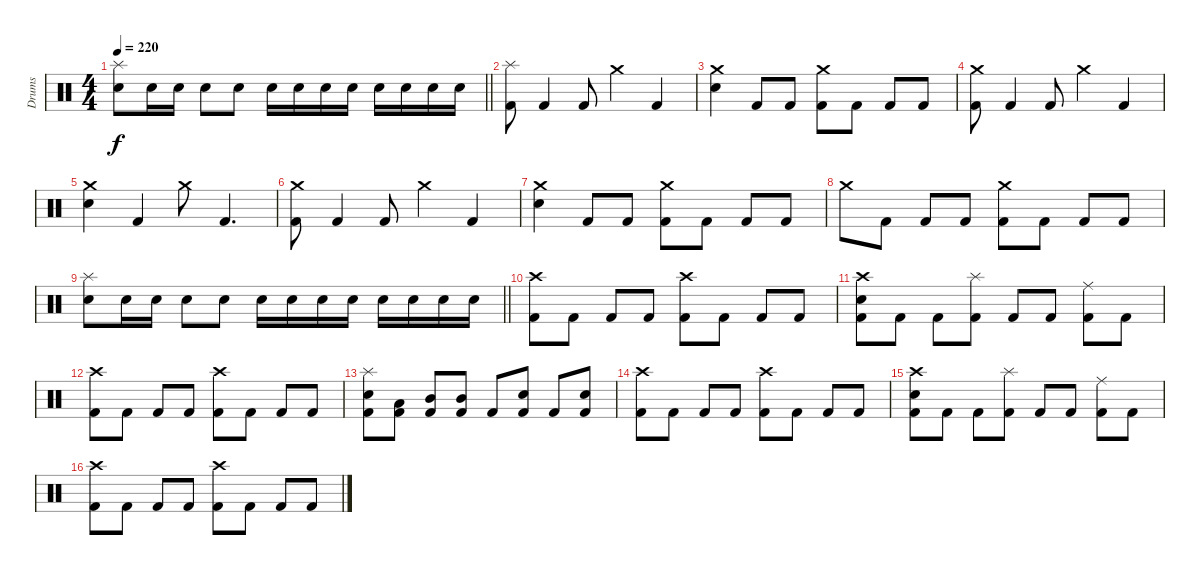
\track ("Drums" "Drums") {instrument percussion}
\staff {score}
\articulation defaults
\ts (4 4)
\tempo 220
\clef neutral
\barLineRight lightlight
\ks c
("Splash (hit)" "Electric Snare (hit)").8{dy f} "Electric Snare (hit)".16 "Electric Snare (hit)".16 "Electric Snare (hit)".8 "Electric Snare (hit)".8 "Electric Snare (hit)".16 "Electric Snare (hit)".16 "Electric Snare (hit)".16 "Electric Snare (hit)".16 "Electric Snare (hit)".16 "Electric Snare (hit)".16 "Electric Snare (hit)".16 "Electric Snare (hit)".16 |
\section ("" "")
("Splash (hit)" "Kick (hit) 2").8 "Kick (hit) 2".4 "Kick (hit) 2".8 "Crash medium (hit)".4 "Kick (hit) 2".4 |
("Crash medium (hit)" "Electric Snare (hit)").4 "Kick (hit) 2".8 "Kick (hit) 2".8 ("Crash medium (hit)" "Kick (hit) 2").8 "Kick (hit) 2".8 "Kick (hit) 2".8 "Kick (hit) 2".8 |
("Crash medium (hit)" "Kick (hit) 2").8 "Kick (hit) 2".4 "Kick (hit) 2".8 "Crash medium (hit)".4 "Kick (hit) 2".4 |
("Crash medium (hit)" "Electric Snare (hit)").4 "Kick (hit) 2".4 "Crash medium (hit)".8 "Kick (hit) 2".4{d} |
("Crash medium (hit)" "Kick (hit) 2").8 "Kick (hit) 2".4 "Kick (hit) 2".8 "Crash medium (hit)".4 "Kick (hit) 2".4 |
("Crash medium (hit)" "Electric Snare (hit)").4 "Kick (hit) 2".8 "Kick (hit) 2".8 ("Crash medium (hit)" "Kick (hit) 2").8 "Kick (hit) 2".8 "Kick (hit) 2".8 "Kick (hit) 2".8 |
"Crash medium (hit)".8 "Kick (hit) 2".8 "Kick (hit) 2".8 "Kick (hit) 2".8 ("Crash medium (hit)" "Kick (hit) 2").8 "Kick (hit) 2".8 "Kick (hit) 2".8 "Kick (hit) 2".8 |
\barLineRight lightlight
("Splash (hit)" "Electric Snare (hit)").8 "Electric Snare (hit)".16 "Electric Snare (hit)".16 "Electric Snare (hit)".8 "Electric Snare (hit)".8 "Electric Snare (hit)".16 "Electric Snare (hit)".16 "Electric Snare (hit)".16 "Electric Snare (hit)".16 "Electric Snare (hit)".16 "Electric Snare (hit)".16 "Electric Snare (hit)".16 "Electric Snare (hit)".16 |
\section ("" "")
("Crash high (hit)" "Kick (hit) 2").8 "Kick (hit) 2".8 "Kick (hit) 2".8 "Kick (hit) 2".8 ("Crash high (hit)" "Kick (hit) 2").8 "Kick (hit) 2".8 "Kick (hit) 2".8 "Kick (hit) 2".8 |
("Crash high (hit)" "Electric Snare (hit)" "Kick (hit) 2").8 "Kick (hit) 2".8 "Kick (hit) 2".8 ("Splash (hit)" "Kick (hit) 2").8 "Kick (hit) 2".8 "Kick (hit) 2".8 ("Ride (middle)" "Kick (hit) 2").8 "Kick (hit) 2".8 |
("Crash high (hit)" "Kick (hit) 2").8 "Kick (hit) 2".8 "Kick (hit) 2".8 "Kick (hit) 2".8 ("Crash high (hit)" "Kick (hit) 2").8 "Kick (hit) 2".8 "Kick (hit) 2".8 "Kick (hit) 2".8 |
("Splash (hit)" "Electric Snare (hit)" "Kick (hit) 2").8 ("Low Tom (hit)" "Kick (hit) 2").8 ("Mid Tom (hit)" "Kick (hit) 2").8 ("Mid Tom (hit)" "Kick (hit) 2").8 "Kick (hit) 2".8 ("Electric Snare (hit)" "Kick (hit) 2").8 "Kick (hit) 2".8 ("Electric Snare (hit)" "Kick (hit) 2").8 |
("Crash high (hit)" "Kick (hit) 2").8 "Kick (hit) 2".8 "Kick (hit) 2".8 "Kick (hit) 2".8 ("Crash high (hit)" "Kick (hit) 2").8 "Kick (hit) 2".8 "Kick (hit) 2".8 "Kick (hit) 2".8 |
("Crash high (hit)" "Electric Snare (hit)" "Kick (hit) 2").8 "Kick (hit) 2".8 "Kick (hit) 2".8 ("Splash (hit)" "Kick (hit) 2").8 "Kick (hit) 2".8 "Kick (hit) 2".8 ("Ride (middle)" "Kick (hit) 2").8 "Kick (hit) 2".8 |
("Crash high (hit)" "Kick (hit) 2").8 "Kick (hit) 2".8 "Kick (hit) 2".8 "Kick (hit) 2".8 ("Crash high (hit)" "Kick (hit) 2").8 "Kick (hit) 2".8 "Kick (hit) 2".8 "Kick (hit) 2".8
